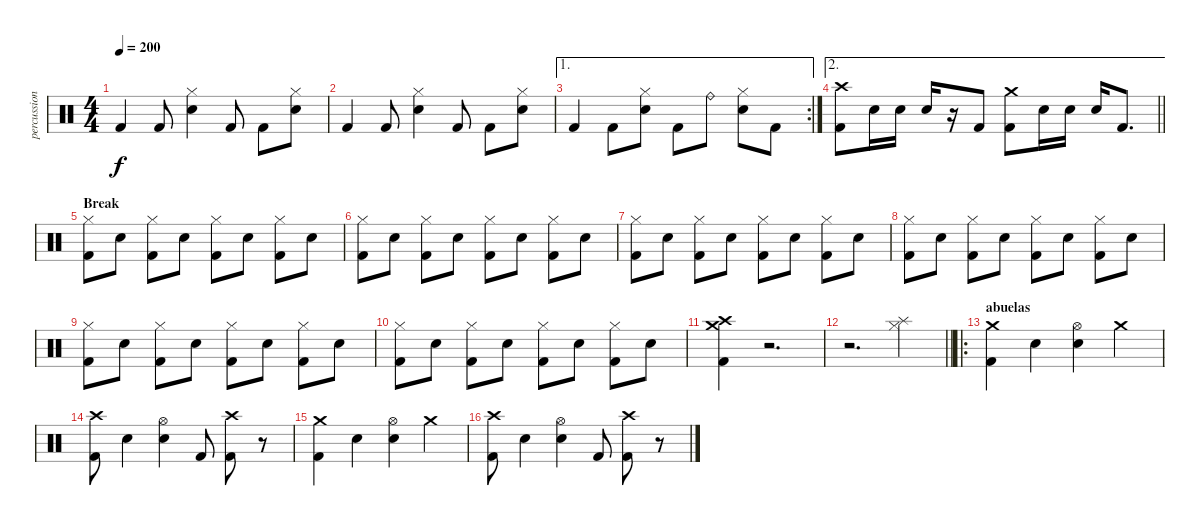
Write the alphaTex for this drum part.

\track ("percussion" "percussion") {instrument percussion}
\staff {score}
\articulation defaults
\ts (4 4)
\tempo 200
\clef neutral
\ks c "Kick (hit) 2".4{dy f} "Kick (hit) 2".8
("Electric Snare (hit)" "Hi-Hat (closed)").4 "Kick (hit) 2".8 "Kick (hit) 2".8 ("Electric Snare (hit)" "Hi-Hat (closed)").8 |
"Kick (hit) 2".4 "Kick (hit) 2".8 ("Electric Snare (hit)" "Hi-Hat (closed)").4 "Kick (hit) 2".8 "Kick (hit) 2".8 ("Electric Snare (hit)" "Hi-Hat (closed)").8 |
\ae 1
\rc 2 "Kick (hit) 2".4 "Kick (hit) 2".8
("Electric Snare (hit)" "Hi-Hat (closed)").8 "Kick (hit) 2".8 "Ride (bell)".8 ("Electric Snare (hit)" "Hi-Hat (closed)").8 "Kick (hit) 2".8 |
\ae 2
\barLineRight lightlight
("Kick (hit) 2" "Crash high (hit)").8 "Electric Snare (hit)".16 "Electric Snare (hit)".16 "Electric Snare (hit)".16 r.16 "Kick (hit) 2".8 ("Kick (hit) 2" "Crash medium (hit)").8 "Electric Snare (hit)".16 "Electric Snare (hit)".16 "Electric Snare (hit)".16 "Kick (hit) 2".8{d} |
\section ("" "Break")
("Hi-Hat (closed)" "Kick (hit) 2").8 "Electric Snare (hit)".8 ("Hi-Hat (closed)" "Kick (hit) 2").8 "Electric Snare (hit)".8 ("Hi-Hat (closed)" "Kick (hit) 2").8 "Electric Snare (hit)".8 ("Hi-Hat (closed)" "Kick (hit) 2").8 "Electric Snare (hit)".8 |
("Hi-Hat (closed)" "Kick (hit) 2").8 "Electric Snare (hit)".8 ("Hi-Hat (closed)" "Kick (hit) 2").8 "Electric Snare (hit)".8 ("Hi-Hat (closed)" "Kick (hit) 2").8 "Electric Snare (hit)".8 ("Hi-Hat (closed)" "Kick (hit) 2").8 "Electric Snare (hit)".8 |
("Hi-Hat (closed)" "Kick (hit) 2").8 "Electric Snare (hit)".8 ("Hi-Hat (closed)" "Kick (hit) 2").8 "Electric Snare (hit)".8 ("Hi-Hat (closed)" "Kick (hit) 2").8 "Electric Snare (hit)".8 ("Hi-Hat (closed)" "Kick (hit) 2").8 "Electric Snare (hit)".8 |
("Hi-Hat (closed)" "Kick (hit) 2").8 "Electric Snare (hit)".8 ("Hi-Hat (closed)" "Kick (hit) 2").8 "Electric Snare (hit)".8 ("Hi-Hat (closed)" "Kick (hit) 2").8 "Electric Snare (hit)".8 ("Hi-Hat (closed)" "Kick (hit) 2").8 "Electric Snare (hit)".8 |
("Hi-Hat (closed)" "Kick (hit) 2").8 "Electric Snare (hit)".8 ("Hi-Hat (closed)" "Kick (hit) 2").8 "Electric Snare (hit)".8 ("Hi-Hat (closed)" "Kick (hit) 2").8 "Electric Snare (hit)".8 ("Hi-Hat (closed)" "Kick (hit) 2").8 "Electric Snare (hit)".8 |
("Hi-Hat (closed)" "Kick (hit) 2").8 "Electric Snare (hit)".8 ("Hi-Hat (closed)" "Kick (hit) 2").8 "Electric Snare (hit)".8 ("Hi-Hat (closed)" "Kick (hit) 2").8 "Electric Snare (hit)".8 ("Hi-Hat (closed)" "Kick (hit) 2").8 "Electric Snare (hit)".8 |
("Crash medium (hit)" "Crash high (hit)" "Kick (hit) 2").4 r.2{d} |
\barLineRight lightlight
r.2{d} ("Splash (hit)" "Hi-Hat (closed)").4 |
\ro
\section ("" "abuelas")
("Crash medium (hit)" "Kick (hit) 2").4 "Electric Snare (hit)".4 ("Electric Snare (hit)" "Hi-Hat (open)").4 "Crash medium (hit)".4 |
("Kick (hit) 2" "Crash high (hit)").8 "Electric Snare (hit)".4 ("Electric Snare (hit)" "Hi-Hat (open)").4 "Kick (hit) 2".8 ("Kick (hit) 2" "Crash high (hit)").8 r.8 |
("Crash medium (hit)" "Kick (hit) 2").4 "Electric Snare (hit)".4 ("Electric Snare (hit)" "Hi-Hat (open)").4 "Crash medium (hit)".4 |
("Kick (hit) 2" "Crash high (hit)").8 "Electric Snare (hit)".4 ("Electric Snare (hit)" "Hi-Hat (open)").4 "Kick (hit) 2".8 ("Kick (hit) 2" "Crash high (hit)").8 r.8
